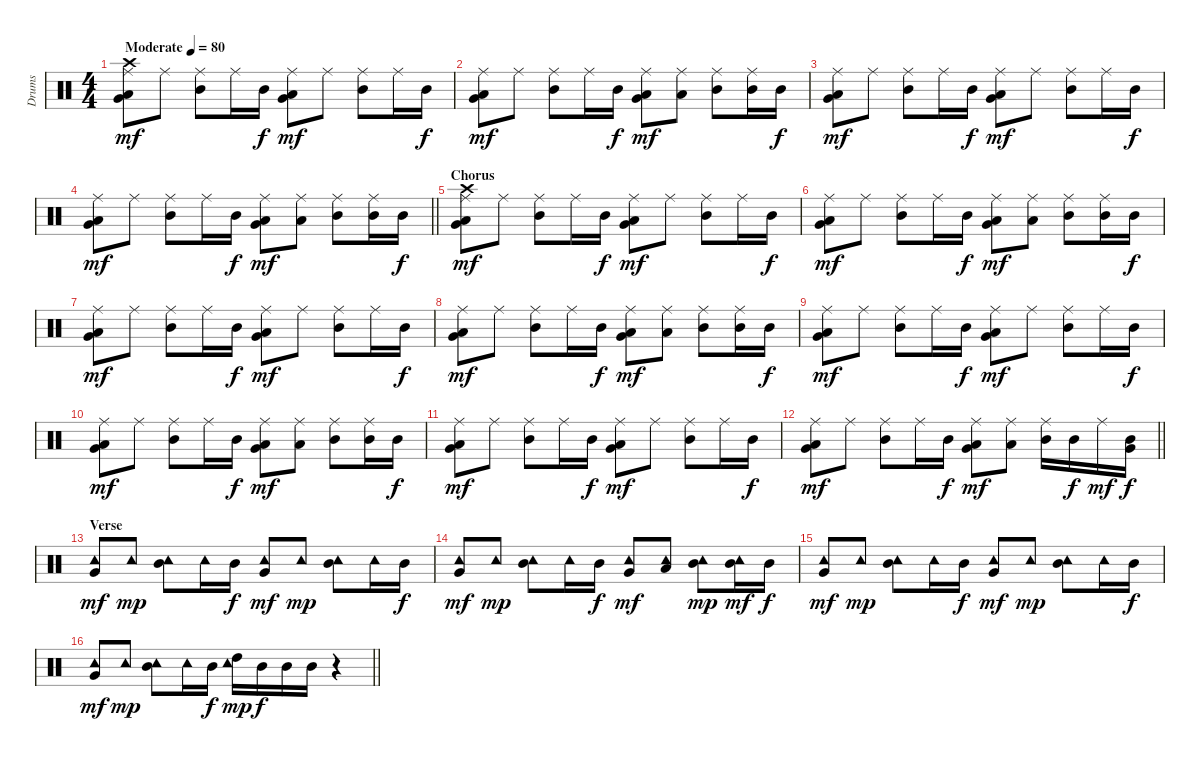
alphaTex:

\track ("Drums" "Drums") {instrument percussion}
\staff {score}
\articulation defaults
\ts (4 4)
\tempo (80 "Moderate")
\clef neutral
\ks c
("Ride (middle)" "Crash high (hit)" "Low Tom (hit)" "Very Low Tom (hit)").8{dy mf} "Ride (middle)".8 ("Ride (middle)" "Mid Tom (hit)").8 "Ride (middle)".16 "Mid Tom (hit)".16{dy f} ("Ride (middle)" "Low Tom (hit)" "Very Low Tom (hit)").8{dy mf} "Ride (middle)".8 ("Ride (middle)" "Mid Tom (hit)").8 "Ride (middle)".16 "Mid Tom (hit)".16{dy f} |
("Ride (middle)" "Low Tom (hit)" "Very Low Tom (hit)").8{dy mf} "Ride (middle)".8 ("Ride (middle)" "Mid Tom (hit)").8 "Ride (middle)".16 "Mid Tom (hit)".16{dy f} ("Ride (middle)" "Low Tom (hit)" "Very Low Tom (hit)").8{dy mf} ("Ride (middle)" "Low Tom (hit)").8 ("Ride (middle)" "Mid Tom (hit)").8 ("Ride (middle)" "Mid Tom (hit)").16 "Mid Tom (hit)".16{dy f} |
("Ride (middle)" "Low Tom (hit)" "Very Low Tom (hit)").8{dy mf} "Ride (middle)".8 ("Ride (middle)" "Mid Tom (hit)").8 "Ride (middle)".16 "Mid Tom (hit)".16{dy f} ("Ride (middle)" "Low Tom (hit)" "Very Low Tom (hit)").8{dy mf} "Ride (middle)".8 ("Ride (middle)" "Mid Tom (hit)").8 "Ride (middle)".16 "Mid Tom (hit)".16{dy f} |
\barLineRight lightlight
("Ride (middle)" "Low Tom (hit)" "Very Low Tom (hit)").8{dy mf} "Ride (middle)".8 ("Ride (middle)" "Mid Tom (hit)").8 "Ride (middle)".16 "Mid Tom (hit)".16{dy f} ("Ride (middle)" "Low Tom (hit)" "Very Low Tom (hit)").8{dy mf} ("Ride (middle)" "Low Tom (hit)").8 ("Ride (middle)" "Mid Tom (hit)").8 ("Ride (middle)" "Mid Tom (hit)").16 "Mid Tom (hit)".16{dy f} |
\section ("" "Chorus")
("Ride (middle)" "Crash high (hit)" "Low Tom (hit)" "Very Low Tom (hit)").8{dy mf} "Ride (middle)".8 ("Ride (middle)" "Mid Tom (hit)").8 "Ride (middle)".16 "Mid Tom (hit)".16{dy f} ("Ride (middle)" "Low Tom (hit)" "Very Low Tom (hit)").8{dy mf} "Ride (middle)".8 ("Ride (middle)" "Mid Tom (hit)").8 "Ride (middle)".16 "Mid Tom (hit)".16{dy f} |
("Ride (middle)" "Low Tom (hit)" "Very Low Tom (hit)").8{dy mf} "Ride (middle)".8 ("Ride (middle)" "Mid Tom (hit)").8 "Ride (middle)".16 "Mid Tom (hit)".16{dy f} ("Ride (middle)" "Low Tom (hit)" "Very Low Tom (hit)").8{dy mf} ("Ride (middle)" "Low Tom (hit)").8 ("Ride (middle)" "Mid Tom (hit)").8 ("Ride (middle)" "Mid Tom (hit)").16 "Mid Tom (hit)".16{dy f} |
("Ride (middle)" "Low Tom (hit)" "Very Low Tom (hit)").8{dy mf} "Ride (middle)".8 ("Ride (middle)" "Mid Tom (hit)").8 "Ride (middle)".16 "Mid Tom (hit)".16{dy f} ("Ride (middle)" "Low Tom (hit)" "Very Low Tom (hit)").8{dy mf} "Ride (middle)".8 ("Ride (middle)" "Mid Tom (hit)").8 "Ride (middle)".16 "Mid Tom (hit)".16{dy f} |
("Ride (middle)" "Low Tom (hit)" "Very Low Tom (hit)").8{dy mf} "Ride (middle)".8 ("Ride (middle)" "Mid Tom (hit)").8 "Ride (middle)".16 "Mid Tom (hit)".16{dy f} ("Ride (middle)" "Low Tom (hit)" "Very Low Tom (hit)").8{dy mf} ("Ride (middle)" "Low Tom (hit)").8 ("Ride (middle)" "Mid Tom (hit)").8 ("Ride (middle)" "Mid Tom (hit)").16 "Mid Tom (hit)".16{dy f} |
("Ride (middle)" "Low Tom (hit)" "Very Low Tom (hit)").8{dy mf} "Ride (middle)".8 ("Ride (middle)" "Mid Tom (hit)").8 "Ride (middle)".16 "Mid Tom (hit)".16{dy f} ("Ride (middle)" "Low Tom (hit)" "Very Low Tom (hit)").8{dy mf} "Ride (middle)".8 ("Ride (middle)" "Mid Tom (hit)").8 "Ride (middle)".16 "Mid Tom (hit)".16{dy f} |
("Ride (middle)" "Low Tom (hit)" "Very Low Tom (hit)").8{dy mf} "Ride (middle)".8 ("Ride (middle)" "Mid Tom (hit)").8 "Ride (middle)".16 "Mid Tom (hit)".16{dy f} ("Ride (middle)" "Low Tom (hit)" "Very Low Tom (hit)").8{dy mf} ("Ride (middle)" "Low Tom (hit)").8 ("Ride (middle)" "Mid Tom (hit)").8 ("Ride (middle)" "Mid Tom (hit)").16 "Mid Tom (hit)".16{dy f} |
("Ride (middle)" "Low Tom (hit)" "Very Low Tom (hit)").8{dy mf} "Ride (middle)".8 ("Ride (middle)" "Mid Tom (hit)").8 "Ride (middle)".16 "Mid Tom (hit)".16{dy f} ("Ride (middle)" "Low Tom (hit)" "Very Low Tom (hit)").8{dy mf} "Ride (middle)".8 ("Ride (middle)" "Mid Tom (hit)").8 "Ride (middle)".16 "Mid Tom (hit)".16{dy f} |
\barLineRight lightlight
("Ride (middle)" "Low Tom (hit)" "Very Low Tom (hit)").8{dy mf} "Ride (middle)".8 ("Ride (middle)" "Mid Tom (hit)").8 "Ride (middle)".16 "Mid Tom (hit)".16{dy f} ("Ride (middle)" "Low Tom (hit)" "Very Low Tom (hit)").8{dy mf} ("Ride (middle)" "Low Tom (hit)").8 ("Ride (middle)" "Mid Tom (hit)").16 "Mid Tom (hit)".16{dy f} "Ride (middle)".16{dy mf} ("Mid Tom (hit)" "Very Low Tom (hit)").16{dy f} |
\section ("" "Verse")
("Tambourine (hit)" "Very Low Tom (hit)").8{dy mf} "Tambourine (hit)".8{dy mp} ("Tambourine (hit)" "Mid Tom (hit)").8 "Tambourine (hit)".16 "Mid Tom (hit)".16{dy f} ("Tambourine (hit)" "Very Low Tom (hit)").8{dy mf} "Tambourine (hit)".8{dy mp} ("Tambourine (hit)" "Mid Tom (hit)").8 "Tambourine (hit)".16 "Mid Tom (hit)".16{dy f} |
("Tambourine (hit)" "Very Low Tom (hit)").8{dy mf} "Tambourine (hit)".8{dy mp} ("Tambourine (hit)" "Mid Tom (hit)").8 "Tambourine (hit)".16 "Mid Tom (hit)".16{dy f} ("Tambourine (hit)" "Very Low Tom (hit)").8{dy mf} ("Tambourine (hit)" "Low Tom (hit)").8 ("Tambourine (hit)" "Mid Tom (hit)").8{dy mp} ("Tambourine (hit)" "Mid Tom (hit)").16{dy mf} "Mid Tom (hit)".16{dy f} |
("Tambourine (hit)" "Very Low Tom (hit)").8{dy mf} "Tambourine (hit)".8{dy mp} ("Tambourine (hit)" "Mid Tom (hit)").8 "Tambourine (hit)".16 "Mid Tom (hit)".16{dy f} ("Tambourine (hit)" "Very Low Tom (hit)").8{dy mf} "Tambourine (hit)".8{dy mp} ("Tambourine (hit)" "Mid Tom (hit)").8 "Tambourine (hit)".16 "Mid Tom (hit)".16{dy f} |
\barLineRight lightlight
("Tambourine (hit)" "Very Low Tom (hit)").8{dy mf} "Tambourine (hit)".8{dy mp} ("Tambourine (hit)" "Mid Tom (hit)").8 "Tambourine (hit)".16 "Mid Tom (hit)".16{dy f} ("Tambourine (hit)" "High Tom (hit)").16{dy mp} "Mid Tom (hit)".16{dy f} "Mid Tom (hit)".16 "Mid Tom (hit)".16 r.4
